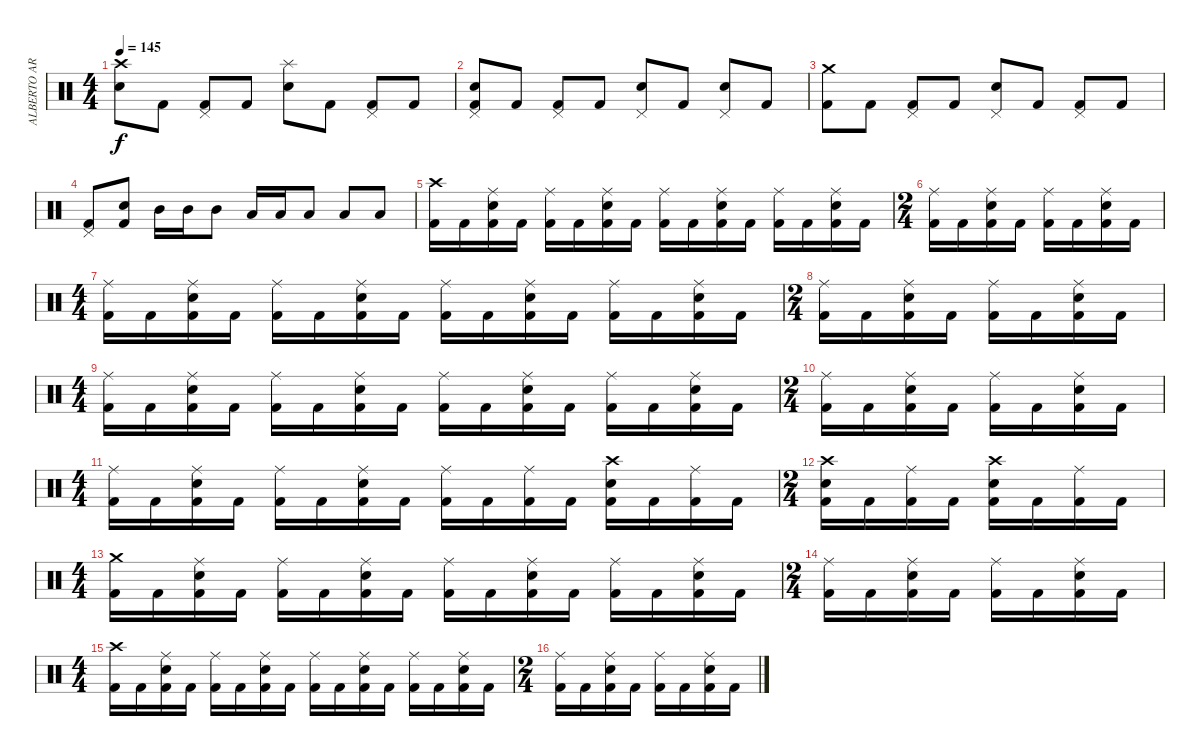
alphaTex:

\track ("ALBERTO ARDINES" "ALBERTO AR") {instrument percussion}
\staff {score}
\articulation defaults
\ts (4 4)
\tempo 145
\clef neutral
\ks c
("Crash high (hit)" "Electric Snare (hit)").8{dy f} "Kick (hit) 2".8 ("Pedal Hi-Hat (hit)" "Kick (hit) 2").8 "Kick (hit) 2".8 ("Splash (hit)" "Electric Snare (hit)").8 "Kick (hit) 2".8 ("Pedal Hi-Hat (hit)" "Kick (hit) 2").8 "Kick (hit) 2".8 |
("Pedal Hi-Hat (hit)" "Electric Snare (hit)" "Kick (hit) 2").8 "Kick (hit) 2".8 ("Pedal Hi-Hat (hit)" "Kick (hit) 2").8 "Kick (hit) 2".8 ("Pedal Hi-Hat (hit)" "Electric Snare (hit)").8 "Kick (hit) 2".8 ("Pedal Hi-Hat (hit)" "Electric Snare (hit)").8 "Kick (hit) 2".8 |
("Crash medium (hit)" "Kick (hit) 2").8 "Kick (hit) 2".8 ("Pedal Hi-Hat (hit)" "Kick (hit) 2").8 "Kick (hit) 2".8 ("Pedal Hi-Hat (hit)" "Electric Snare (hit)").8 "Kick (hit) 2".8 ("Pedal Hi-Hat (hit)" "Kick (hit) 2").8 "Kick (hit) 2".8 |
("Pedal Hi-Hat (hit)" "Kick (hit) 2").8 ("Electric Snare (hit)" "Kick (hit) 2").8 "Mid Tom (hit)".16 "Mid Tom (hit)".16 "Mid Tom (hit)".8 "Low Tom (hit)".16 "Low Tom (hit)".16 "Low Tom (hit)".8 "Low Tom (hit)".8 "Low Tom (hit)".8 |
("Crash high (hit)" "Kick (hit) 2").16 "Kick (hit) 2".16 ("Ride (middle)" "Electric Snare (hit)" "Kick (hit) 2").16 "Kick (hit) 2".16 ("Ride (middle)" "Kick (hit) 2").16 "Kick (hit) 2".16 ("Ride (middle)" "Electric Snare (hit)" "Kick (hit) 2").16 "Kick (hit) 2".16 ("Ride (middle)" "Kick (hit) 2").16 "Kick (hit) 2".16 ("Ride (middle)" "Electric Snare (hit)" "Kick (hit) 2").16 "Kick (hit) 2".16 ("Ride (middle)" "Kick (hit) 2").16 "Kick (hit) 2".16 ("Ride (middle)" "Electric Snare (hit)" "Kick (hit) 2").16 "Kick (hit) 2".16 |
\ts (2 4)
("Ride (middle)" "Kick (hit) 2").16 "Kick (hit) 2".16 ("Ride (middle)" "Electric Snare (hit)" "Kick (hit) 2").16 "Kick (hit) 2".16 ("Ride (middle)" "Kick (hit) 2").16 "Kick (hit) 2".16 ("Ride (middle)" "Electric Snare (hit)" "Kick (hit) 2").16 "Kick (hit) 2".16 |
\ts (4 4)
("Ride (middle)" "Kick (hit) 2").16 "Kick (hit) 2".16 ("Ride (middle)" "Electric Snare (hit)" "Kick (hit) 2").16 "Kick (hit) 2".16 ("Ride (middle)" "Kick (hit) 2").16 "Kick (hit) 2".16 ("Ride (middle)" "Electric Snare (hit)" "Kick (hit) 2").16 "Kick (hit) 2".16 ("Ride (middle)" "Kick (hit) 2").16 "Kick (hit) 2".16 ("Ride (middle)" "Electric Snare (hit)" "Kick (hit) 2").16 "Kick (hit) 2".16 ("Ride (middle)" "Kick (hit) 2").16 "Kick (hit) 2".16 ("Ride (middle)" "Electric Snare (hit)" "Kick (hit) 2").16 "Kick (hit) 2".16 |
\ts (2 4)
("Ride (middle)" "Kick (hit) 2").16 "Kick (hit) 2".16 ("Ride (middle)" "Electric Snare (hit)" "Kick (hit) 2").16 "Kick (hit) 2".16 ("Ride (middle)" "Kick (hit) 2").16 "Kick (hit) 2".16 ("Ride (middle)" "Electric Snare (hit)" "Kick (hit) 2").16 "Kick (hit) 2".16 |
\ts (4 4)
("Ride (middle)" "Kick (hit) 2").16 "Kick (hit) 2".16 ("Ride (middle)" "Electric Snare (hit)" "Kick (hit) 2").16 "Kick (hit) 2".16 ("Ride (middle)" "Kick (hit) 2").16 "Kick (hit) 2".16 ("Ride (middle)" "Electric Snare (hit)" "Kick (hit) 2").16 "Kick (hit) 2".16 ("Ride (middle)" "Kick (hit) 2").16 "Kick (hit) 2".16 ("Ride (middle)" "Electric Snare (hit)" "Kick (hit) 2").16 "Kick (hit) 2".16 ("Ride (middle)" "Kick (hit) 2").16 "Kick (hit) 2".16 ("Ride (middle)" "Electric Snare (hit)" "Kick (hit) 2").16 "Kick (hit) 2".16 |
\ts (2 4)
("Ride (middle)" "Kick (hit) 2").16 "Kick (hit) 2".16 ("Ride (middle)" "Electric Snare (hit)" "Kick (hit) 2").16 "Kick (hit) 2".16 ("Ride (middle)" "Kick (hit) 2").16 "Kick (hit) 2".16 ("Ride (middle)" "Electric Snare (hit)" "Kick (hit) 2").16 "Kick (hit) 2".16 |
\ts (4 4)
("Ride (middle)" "Kick (hit) 2").16 "Kick (hit) 2".16 ("Ride (middle)" "Electric Snare (hit)" "Kick (hit) 2").16 "Kick (hit) 2".16 ("Ride (middle)" "Kick (hit) 2").16 "Kick (hit) 2".16 ("Ride (middle)" "Electric Snare (hit)" "Kick (hit) 2").16 "Kick (hit) 2".16 ("Ride (middle)" "Kick (hit) 2").16 "Kick (hit) 2".16 ("Ride (middle)" "Kick (hit) 2").16 "Kick (hit) 2".16 ("Crash high (hit)" "Electric Snare (hit)" "Kick (hit) 2").16 "Kick (hit) 2".16 ("Ride (middle)" "Kick (hit) 2").16 "Kick (hit) 2".16 |
\ts (2 4)
("Crash high (hit)" "Electric Snare (hit)" "Kick (hit) 2").16 "Kick (hit) 2".16 ("Ride (middle)" "Kick (hit) 2").16 "Kick (hit) 2".16 ("Crash high (hit)" "Electric Snare (hit)" "Kick (hit) 2").16 "Kick (hit) 2".16 ("Ride (middle)" "Kick (hit) 2").16 "Kick (hit) 2".16 |
\ts (4 4)
("Crash medium (hit)" "Kick (hit) 2").16 "Kick (hit) 2".16 ("Ride (middle)" "Electric Snare (hit)" "Kick (hit) 2").16 "Kick (hit) 2".16 ("Ride (middle)" "Kick (hit) 2").16 "Kick (hit) 2".16 ("Ride (middle)" "Electric Snare (hit)" "Kick (hit) 2").16 "Kick (hit) 2".16 ("Ride (middle)" "Kick (hit) 2").16 "Kick (hit) 2".16 ("Ride (middle)" "Electric Snare (hit)" "Kick (hit) 2").16 "Kick (hit) 2".16 ("Ride (middle)" "Kick (hit) 2").16 "Kick (hit) 2".16 ("Ride (middle)" "Electric Snare (hit)" "Kick (hit) 2").16 "Kick (hit) 2".16 |
\ts (2 4)
("Ride (middle)" "Kick (hit) 2").16 "Kick (hit) 2".16 ("Ride (middle)" "Electric Snare (hit)" "Kick (hit) 2").16 "Kick (hit) 2".16 ("Ride (middle)" "Kick (hit) 2").16 "Kick (hit) 2".16 ("Ride (middle)" "Electric Snare (hit)" "Kick (hit) 2").16 "Kick (hit) 2".16 |
\ts (4 4)
("Crash high (hit)" "Kick (hit) 2").16 "Kick (hit) 2".16 ("Ride (middle)" "Electric Snare (hit)" "Kick (hit) 2").16 "Kick (hit) 2".16 ("Ride (middle)" "Kick (hit) 2").16 "Kick (hit) 2".16 ("Ride (middle)" "Electric Snare (hit)" "Kick (hit) 2").16 "Kick (hit) 2".16 ("Ride (middle)" "Kick (hit) 2").16 "Kick (hit) 2".16 ("Ride (middle)" "Electric Snare (hit)" "Kick (hit) 2").16 "Kick (hit) 2".16 ("Ride (middle)" "Kick (hit) 2").16 "Kick (hit) 2".16 ("Ride (middle)" "Electric Snare (hit)" "Kick (hit) 2").16 "Kick (hit) 2".16 |
\ts (2 4)
("Ride (middle)" "Kick (hit) 2").16 "Kick (hit) 2".16 ("Ride (middle)" "Electric Snare (hit)" "Kick (hit) 2").16 "Kick (hit) 2".16 ("Ride (middle)" "Kick (hit) 2").16 "Kick (hit) 2".16 ("Ride (middle)" "Electric Snare (hit)" "Kick (hit) 2").16 "Kick (hit) 2".16
